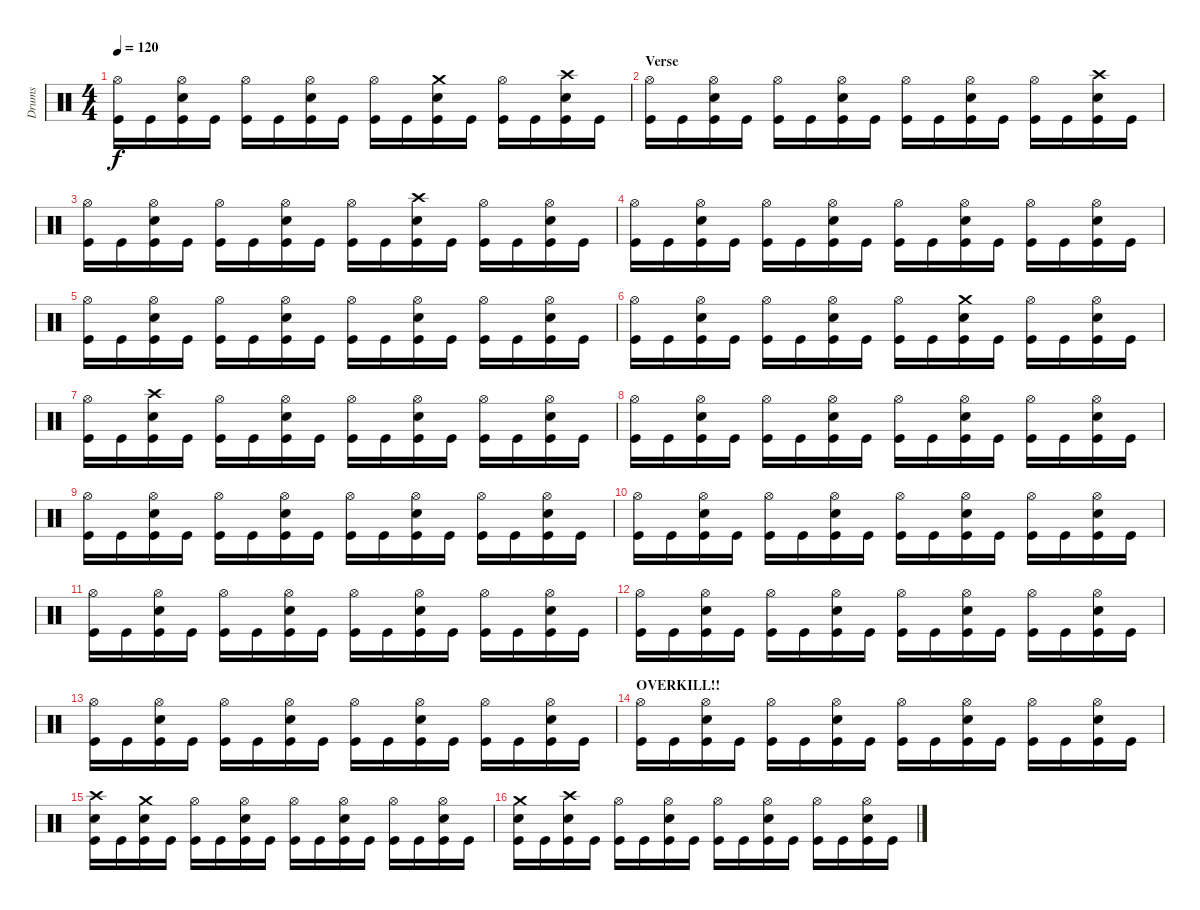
\track ("Drums" "Drums") {instrument percussion}
\staff {score}
\articulation defaults
\ts (4 4)
\tempo 120
\clef neutral
\ks c
("Hi-Hat (open)" "Kick (hit)").16{dy f} "Kick (hit)".16 ("Hi-Hat (open)" "Snare (hit) 2" "Kick (hit)").16 "Kick (hit)".16 ("Hi-Hat (open)" "Kick (hit)").16 "Kick (hit)".16 ("Hi-Hat (open)" "Snare (hit) 2" "Kick (hit)").16 "Kick (hit)".16 ("Hi-Hat (open)" "Kick (hit)").16 "Kick (hit)".16 ("Crash medium (hit)" "Snare (hit) 2" "Kick (hit)").16 "Kick (hit)".16 ("Hi-Hat (open)" "Kick (hit)").16 "Kick (hit)".16 ("Crash high (hit)" "Snare (hit) 2" "Kick (hit)").16 "Kick (hit)".16 |
\section ("" "Verse")
("Hi-Hat (open)" "Kick (hit)").16 "Kick (hit)".16 ("Hi-Hat (open)" "Snare (hit) 2" "Kick (hit)").16 "Kick (hit)".16 ("Hi-Hat (open)" "Kick (hit)").16 "Kick (hit)".16 ("Hi-Hat (open)" "Snare (hit) 2" "Kick (hit)").16 "Kick (hit)".16 ("Hi-Hat (open)" "Kick (hit)").16 "Kick (hit)".16 ("Hi-Hat (open)" "Snare (hit) 2" "Kick (hit)").16 "Kick (hit)".16 ("Hi-Hat (open)" "Kick (hit)").16 "Kick (hit)".16 ("Crash high (hit)" "Snare (hit) 2" "Kick (hit)").16 "Kick (hit)".16 |
("Hi-Hat (open)" "Kick (hit)").16 "Kick (hit)".16 ("Hi-Hat (open)" "Snare (hit) 2" "Kick (hit)").16 "Kick (hit)".16 ("Hi-Hat (open)" "Kick (hit)").16 "Kick (hit)".16 ("Hi-Hat (open)" "Snare (hit) 2" "Kick (hit)").16 "Kick (hit)".16 ("Hi-Hat (open)" "Kick (hit)").16 "Kick (hit)".16 ("Crash high (hit)" "Snare (hit) 2" "Kick (hit)").16 "Kick (hit)".16 ("Hi-Hat (open)" "Kick (hit)").16 "Kick (hit)".16 ("Hi-Hat (open)" "Snare (hit) 2" "Kick (hit)").16 "Kick (hit)".16 |
("Hi-Hat (open)" "Kick (hit)").16 "Kick (hit)".16 ("Hi-Hat (open)" "Snare (hit) 2" "Kick (hit)").16 "Kick (hit)".16 ("Hi-Hat (open)" "Kick (hit)").16 "Kick (hit)".16 ("Hi-Hat (open)" "Snare (hit) 2" "Kick (hit)").16 "Kick (hit)".16 ("Hi-Hat (open)" "Kick (hit)").16 "Kick (hit)".16 ("Hi-Hat (open)" "Snare (hit) 2" "Kick (hit)").16 "Kick (hit)".16 ("Hi-Hat (open)" "Kick (hit)").16 "Kick (hit)".16 ("Hi-Hat (open)" "Snare (hit) 2" "Kick (hit)").16 "Kick (hit)".16 |
("Hi-Hat (open)" "Kick (hit)").16 "Kick (hit)".16 ("Hi-Hat (open)" "Snare (hit) 2" "Kick (hit)").16 "Kick (hit)".16 ("Hi-Hat (open)" "Kick (hit)").16 "Kick (hit)".16 ("Hi-Hat (open)" "Snare (hit) 2" "Kick (hit)").16 "Kick (hit)".16 ("Hi-Hat (open)" "Kick (hit)").16 "Kick (hit)".16 ("Hi-Hat (open)" "Snare (hit) 2" "Kick (hit)").16 "Kick (hit)".16 ("Hi-Hat (open)" "Kick (hit)").16 "Kick (hit)".16 ("Hi-Hat (open)" "Snare (hit) 2" "Kick (hit)").16 "Kick (hit)".16 |
("Hi-Hat (open)" "Kick (hit)").16 "Kick (hit)".16 ("Hi-Hat (open)" "Snare (hit) 2" "Kick (hit)").16 "Kick (hit)".16 ("Hi-Hat (open)" "Kick (hit)").16 "Kick (hit)".16 ("Hi-Hat (open)" "Snare (hit) 2" "Kick (hit)").16 "Kick (hit)".16 ("Hi-Hat (open)" "Kick (hit)").16 "Kick (hit)".16 ("Crash medium (hit)" "Snare (hit) 2" "Kick (hit)").16 "Kick (hit)".16 ("Hi-Hat (open)" "Kick (hit)").16 "Kick (hit)".16 ("Hi-Hat (open)" "Snare (hit) 2" "Kick (hit)").16 "Kick (hit)".16 |
("Hi-Hat (open)" "Kick (hit)").16 "Kick (hit)".16 ("Crash high (hit)" "Snare (hit) 2" "Kick (hit)").16 "Kick (hit)".16 ("Hi-Hat (open)" "Kick (hit)").16 "Kick (hit)".16 ("Hi-Hat (open)" "Snare (hit) 2" "Kick (hit)").16 "Kick (hit)".16 ("Hi-Hat (open)" "Kick (hit)").16 "Kick (hit)".16 ("Hi-Hat (open)" "Snare (hit) 2" "Kick (hit)").16 "Kick (hit)".16 ("Hi-Hat (open)" "Kick (hit)").16 "Kick (hit)".16 ("Hi-Hat (open)" "Snare (hit) 2" "Kick (hit)").16 "Kick (hit)".16 |
("Hi-Hat (open)" "Kick (hit)").16 "Kick (hit)".16 ("Hi-Hat (open)" "Snare (hit) 2" "Kick (hit)").16 "Kick (hit)".16 ("Hi-Hat (open)" "Kick (hit)").16 "Kick (hit)".16 ("Hi-Hat (open)" "Snare (hit) 2" "Kick (hit)").16 "Kick (hit)".16 ("Hi-Hat (open)" "Kick (hit)").16 "Kick (hit)".16 ("Hi-Hat (open)" "Snare (hit) 2" "Kick (hit)").16 "Kick (hit)".16 ("Hi-Hat (open)" "Kick (hit)").16 "Kick (hit)".16 ("Hi-Hat (open)" "Snare (hit) 2" "Kick (hit)").16 "Kick (hit)".16 |
("Hi-Hat (open)" "Kick (hit)").16 "Kick (hit)".16 ("Hi-Hat (open)" "Snare (hit) 2" "Kick (hit)").16 "Kick (hit)".16 ("Hi-Hat (open)" "Kick (hit)").16 "Kick (hit)".16 ("Hi-Hat (open)" "Snare (hit) 2" "Kick (hit)").16 "Kick (hit)".16 ("Hi-Hat (open)" "Kick (hit)").16 "Kick (hit)".16 ("Hi-Hat (open)" "Snare (hit) 2" "Kick (hit)").16 "Kick (hit)".16 ("Hi-Hat (open)" "Kick (hit)").16 "Kick (hit)".16 ("Hi-Hat (open)" "Snare (hit) 2" "Kick (hit)").16 "Kick (hit)".16 |
("Hi-Hat (open)" "Kick (hit)").16 "Kick (hit)".16 ("Hi-Hat (open)" "Snare (hit) 2" "Kick (hit)").16 "Kick (hit)".16 ("Hi-Hat (open)" "Kick (hit)").16 "Kick (hit)".16 ("Hi-Hat (open)" "Snare (hit) 2" "Kick (hit)").16 "Kick (hit)".16 ("Hi-Hat (open)" "Kick (hit)").16 "Kick (hit)".16 ("Hi-Hat (open)" "Snare (hit) 2" "Kick (hit)").16 "Kick (hit)".16 ("Hi-Hat (open)" "Kick (hit)").16 "Kick (hit)".16 ("Hi-Hat (open)" "Snare (hit) 2" "Kick (hit)").16 "Kick (hit)".16 |
("Hi-Hat (open)" "Kick (hit)").16 "Kick (hit)".16 ("Hi-Hat (open)" "Snare (hit) 2" "Kick (hit)").16 "Kick (hit)".16 ("Hi-Hat (open)" "Kick (hit)").16 "Kick (hit)".16 ("Hi-Hat (open)" "Snare (hit) 2" "Kick (hit)").16 "Kick (hit)".16 ("Hi-Hat (open)" "Kick (hit)").16 "Kick (hit)".16 ("Hi-Hat (open)" "Snare (hit) 2" "Kick (hit)").16 "Kick (hit)".16 ("Hi-Hat (open)" "Kick (hit)").16 "Kick (hit)".16 ("Hi-Hat (open)" "Snare (hit) 2" "Kick (hit)").16 "Kick (hit)".16 |
("Hi-Hat (open)" "Kick (hit)").16 "Kick (hit)".16 ("Hi-Hat (open)" "Snare (hit) 2" "Kick (hit)").16 "Kick (hit)".16 ("Hi-Hat (open)" "Kick (hit)").16 "Kick (hit)".16 ("Hi-Hat (open)" "Snare (hit) 2" "Kick (hit)").16 "Kick (hit)".16 ("Hi-Hat (open)" "Kick (hit)").16 "Kick (hit)".16 ("Hi-Hat (open)" "Snare (hit) 2" "Kick (hit)").16 "Kick (hit)".16 ("Hi-Hat (open)" "Kick (hit)").16 "Kick (hit)".16 ("Hi-Hat (open)" "Snare (hit) 2" "Kick (hit)").16 "Kick (hit)".16 |
("Hi-Hat (open)" "Kick (hit)").16 "Kick (hit)".16 ("Hi-Hat (open)" "Snare (hit) 2" "Kick (hit)").16 "Kick (hit)".16 ("Hi-Hat (open)" "Kick (hit)").16 "Kick (hit)".16 ("Hi-Hat (open)" "Snare (hit) 2" "Kick (hit)").16 "Kick (hit)".16 ("Hi-Hat (open)" "Kick (hit)").16 "Kick (hit)".16 ("Hi-Hat (open)" "Snare (hit) 2" "Kick (hit)").16 "Kick (hit)".16 ("Hi-Hat (open)" "Kick (hit)").16 "Kick (hit)".16 ("Hi-Hat (open)" "Snare (hit) 2" "Kick (hit)").16 "Kick (hit)".16 |
\section ("" "OVERKILL!!")
("Hi-Hat (open)" "Kick (hit)").16 "Kick (hit)".16 ("Hi-Hat (open)" "Snare (hit) 2" "Kick (hit)").16 "Kick (hit)".16 ("Hi-Hat (open)" "Kick (hit)").16 "Kick (hit)".16 ("Hi-Hat (open)" "Snare (hit) 2" "Kick (hit)").16 "Kick (hit)".16 ("Hi-Hat (open)" "Kick (hit)").16 "Kick (hit)".16 ("Hi-Hat (open)" "Snare (hit) 2" "Kick (hit)").16 "Kick (hit)".16 ("Hi-Hat (open)" "Kick (hit)").16 "Kick (hit)".16 ("Hi-Hat (open)" "Snare (hit) 2" "Kick (hit)").16 "Kick (hit)".16 |
("Crash high (hit)" "Snare (hit) 2" "Kick (hit)").16 "Kick (hit)".16 ("Crash medium (hit)" "Snare (hit) 2" "Kick (hit)").16 "Kick (hit)".16 ("Hi-Hat (open)" "Kick (hit)").16 "Kick (hit)".16 ("Hi-Hat (open)" "Snare (hit) 2" "Kick (hit)").16 "Kick (hit)".16 ("Hi-Hat (open)" "Kick (hit)").16 "Kick (hit)".16 ("Hi-Hat (open)" "Snare (hit) 2" "Kick (hit)").16 "Kick (hit)".16 ("Hi-Hat (open)" "Kick (hit)").16 "Kick (hit)".16 ("Hi-Hat (open)" "Snare (hit) 2" "Kick (hit)").16 "Kick (hit)".16 |
("Crash medium (hit)" "Snare (hit) 2" "Kick (hit)").16 "Kick (hit)".16 ("Crash high (hit)" "Snare (hit) 2" "Kick (hit)").16 "Kick (hit)".16 ("Hi-Hat (open)" "Kick (hit)").16 "Kick (hit)".16 ("Hi-Hat (open)" "Snare (hit) 2" "Kick (hit)").16 "Kick (hit)".16 ("Hi-Hat (open)" "Kick (hit)").16 "Kick (hit)".16 ("Hi-Hat (open)" "Snare (hit) 2" "Kick (hit)").16 "Kick (hit)".16 ("Hi-Hat (open)" "Kick (hit)").16 "Kick (hit)".16 ("Hi-Hat (open)" "Snare (hit) 2" "Kick (hit)").16 "Kick (hit)".16
